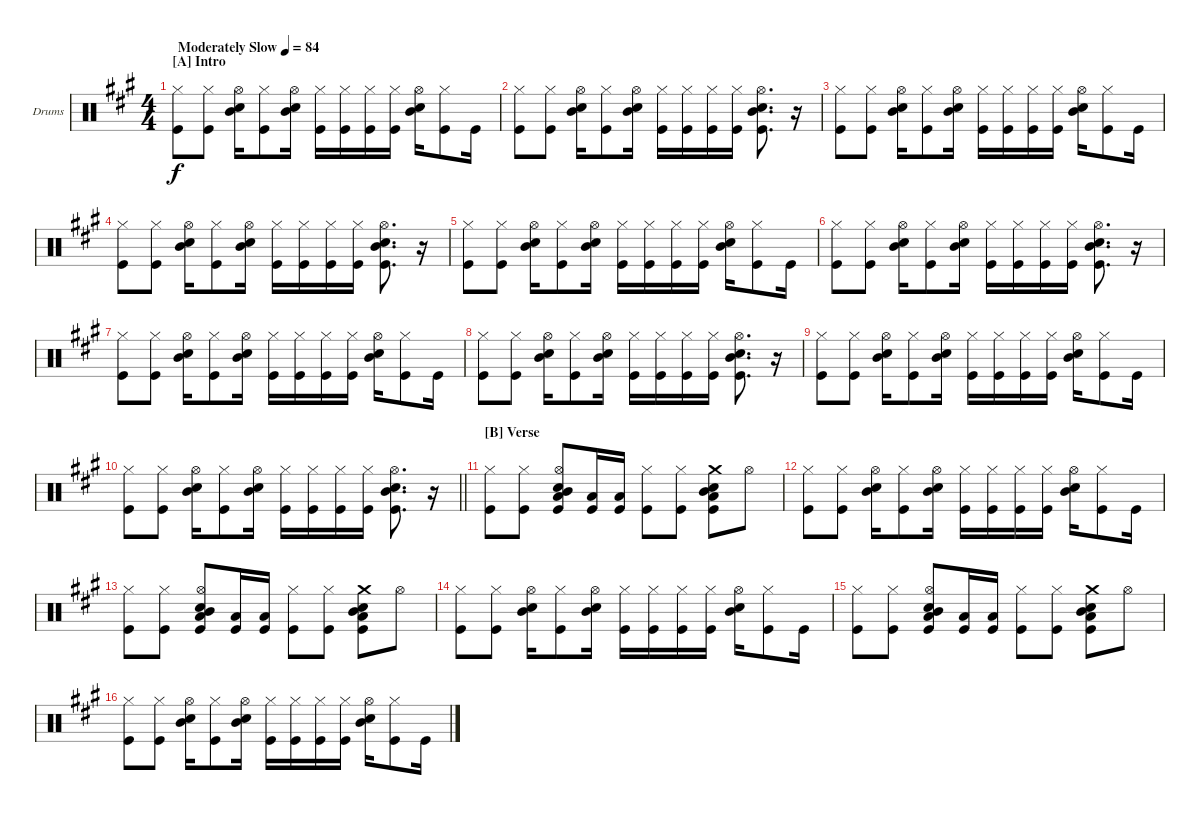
\defaultSystemsLayout 4
\bracketExtendMode groupsimilarinstruments
\firstSystemTrackNameOrientation horizontal
\otherSystemsTrackNameOrientation horizontal
\track ("Drumkit" "Drums") {instrument percussion}
\staff {score}
\articulation defaults
\ts (4 4)
\section ("A" "Intro")
\tempo (84 "Moderately Slow")
\clef neutral
\scale
1.08827
\ks a
("Kick (hit)" "Hi-Hat (closed)").8{dy f} ("Kick (hit)" "Hi-Hat (closed)").8 ("Snare (hit) 2" "Mid Tom (hit)" "Hi-Hat (open)").16 ("Kick (hit)" "Hi-Hat (closed)").8 ("Snare (hit) 2" "Mid Tom (hit)" "Hi-Hat (open)").16 ("Kick (hit)" "Hi-Hat (closed)").16 ("Kick (hit)" "Hi-Hat (closed)").16 ("Kick (hit)" "Hi-Hat (closed)").16 ("Kick (hit)" "Hi-Hat (closed)").16 ("Snare (hit) 2" "Mid Tom (hit)" "Hi-Hat (open)").16 ("Kick (hit)" "Hi-Hat (closed)").8 "Kick (hit)".16 |
\scale
0.911728 ("Kick (hit)" "Hi-Hat (closed)").8 ("Kick (hit)" "Hi-Hat (closed)").8 ("Snare (hit) 2" "Mid Tom (hit)" "Hi-Hat (open)").16 ("Kick (hit)" "Hi-Hat (closed)").8 ("Snare (hit) 2" "Mid Tom (hit)" "Hi-Hat (open)").16 ("Kick (hit)" "Hi-Hat (closed)").16 ("Kick (hit)" "Hi-Hat (closed)").16 ("Kick (hit)" "Hi-Hat (closed)").16 ("Kick (hit)" "Hi-Hat (closed)").16 ("Snare (hit) 2" "Mid Tom (hit)" "Hi-Hat (open)" "Kick (hit)").8{d} r.16 |
\scale
1.05801 ("Kick (hit)" "Hi-Hat (closed)").8 ("Kick (hit)" "Hi-Hat (closed)").8 ("Snare (hit) 2" "Mid Tom (hit)" "Hi-Hat (open)").16 ("Kick (hit)" "Hi-Hat (closed)").8 ("Snare (hit) 2" "Mid Tom (hit)" "Hi-Hat (open)").16 ("Kick (hit)" "Hi-Hat (closed)").16 ("Kick (hit)" "Hi-Hat (closed)").16 ("Kick (hit)" "Hi-Hat (closed)").16 ("Kick (hit)" "Hi-Hat (closed)").16 ("Snare (hit) 2" "Mid Tom (hit)" "Hi-Hat (open)").16 ("Kick (hit)" "Hi-Hat (closed)").8 "Kick (hit)".16 |
\scale
0.941992 ("Kick (hit)" "Hi-Hat (closed)").8 ("Kick (hit)" "Hi-Hat (closed)").8 ("Snare (hit) 2" "Mid Tom (hit)" "Hi-Hat (open)").16 ("Kick (hit)" "Hi-Hat (closed)").8 ("Snare (hit) 2" "Mid Tom (hit)" "Hi-Hat (open)").16 ("Kick (hit)" "Hi-Hat (closed)").16 ("Kick (hit)" "Hi-Hat (closed)").16 ("Kick (hit)" "Hi-Hat (closed)").16 ("Kick (hit)" "Hi-Hat (closed)").16 ("Snare (hit) 2" "Mid Tom (hit)" "Hi-Hat (open)" "Kick (hit)").8{d} r.16 |
\scale
1.05801 ("Kick (hit)" "Hi-Hat (closed)").8 ("Kick (hit)" "Hi-Hat (closed)").8 ("Snare (hit) 2" "Mid Tom (hit)" "Hi-Hat (open)").16 ("Kick (hit)" "Hi-Hat (closed)").8 ("Snare (hit) 2" "Mid Tom (hit)" "Hi-Hat (open)").16 ("Kick (hit)" "Hi-Hat (closed)").16 ("Kick (hit)" "Hi-Hat (closed)").16 ("Kick (hit)" "Hi-Hat (closed)").16 ("Kick (hit)" "Hi-Hat (closed)").16 ("Snare (hit) 2" "Mid Tom (hit)" "Hi-Hat (open)").16 ("Kick (hit)" "Hi-Hat (closed)").8 "Kick (hit)".16 |
\scale
0.941992 ("Kick (hit)" "Hi-Hat (closed)").8 ("Kick (hit)" "Hi-Hat (closed)").8 ("Snare (hit) 2" "Mid Tom (hit)" "Hi-Hat (open)").16 ("Kick (hit)" "Hi-Hat (closed)").8 ("Snare (hit) 2" "Mid Tom (hit)" "Hi-Hat (open)").16 ("Kick (hit)" "Hi-Hat (closed)").16 ("Kick (hit)" "Hi-Hat (closed)").16 ("Kick (hit)" "Hi-Hat (closed)").16 ("Kick (hit)" "Hi-Hat (closed)").16 ("Snare (hit) 2" "Mid Tom (hit)" "Hi-Hat (open)" "Kick (hit)").8{d} r.16 |
\scale
1.05801 ("Kick (hit)" "Hi-Hat (closed)").8 ("Kick (hit)" "Hi-Hat (closed)").8 ("Snare (hit) 2" "Mid Tom (hit)" "Hi-Hat (open)").16 ("Kick (hit)" "Hi-Hat (closed)").8 ("Snare (hit) 2" "Mid Tom (hit)" "Hi-Hat (open)").16 ("Kick (hit)" "Hi-Hat (closed)").16 ("Kick (hit)" "Hi-Hat (closed)").16 ("Kick (hit)" "Hi-Hat (closed)").16 ("Kick (hit)" "Hi-Hat (closed)").16 ("Snare (hit) 2" "Mid Tom (hit)" "Hi-Hat (open)").16 ("Kick (hit)" "Hi-Hat (closed)").8 "Kick (hit)".16 |
\scale
0.941992 ("Kick (hit)" "Hi-Hat (closed)").8 ("Kick (hit)" "Hi-Hat (closed)").8 ("Snare (hit) 2" "Mid Tom (hit)" "Hi-Hat (open)").16 ("Kick (hit)" "Hi-Hat (closed)").8 ("Snare (hit) 2" "Mid Tom (hit)" "Hi-Hat (open)").16 ("Kick (hit)" "Hi-Hat (closed)").16 ("Kick (hit)" "Hi-Hat (closed)").16 ("Kick (hit)" "Hi-Hat (closed)").16 ("Kick (hit)" "Hi-Hat (closed)").16 ("Snare (hit) 2" "Mid Tom (hit)" "Hi-Hat (open)" "Kick (hit)").8{d} r.16 |
\scale
1.05801 ("Kick (hit)" "Hi-Hat (closed)").8 ("Kick (hit)" "Hi-Hat (closed)").8 ("Snare (hit) 2" "Mid Tom (hit)" "Hi-Hat (open)").16 ("Kick (hit)" "Hi-Hat (closed)").8 ("Snare (hit) 2" "Mid Tom (hit)" "Hi-Hat (open)").16 ("Kick (hit)" "Hi-Hat (closed)").16 ("Kick (hit)" "Hi-Hat (closed)").16 ("Kick (hit)" "Hi-Hat (closed)").16 ("Kick (hit)" "Hi-Hat (closed)").16 ("Snare (hit) 2" "Mid Tom (hit)" "Hi-Hat (open)").16 ("Kick (hit)" "Hi-Hat (closed)").8 "Kick (hit)".16 |
\scale
0.941992
\barLineRight lightlight
("Kick (hit)" "Hi-Hat (closed)").8 ("Kick (hit)" "Hi-Hat (closed)").8 ("Snare (hit) 2" "Mid Tom (hit)" "Hi-Hat (open)").16 ("Kick (hit)" "Hi-Hat (closed)").8 ("Snare (hit) 2" "Mid Tom (hit)" "Hi-Hat (open)").16 ("Kick (hit)" "Hi-Hat (closed)").16 ("Kick (hit)" "Hi-Hat (closed)").16 ("Kick (hit)" "Hi-Hat (closed)").16 ("Kick (hit)" "Hi-Hat (closed)").16 ("Snare (hit) 2" "Mid Tom (hit)" "Hi-Hat (open)" "Kick (hit)").8{d} r.16 |
\section ("B" "Verse")
\scale
0.686869
\scale
1.05801 ("Hi-Hat (closed)" "Kick (hit)").8 ("Hi-Hat (closed)" "Kick (hit)").8 ("Snare (hit) 2" "Mid Tom (hit)" "Hi-Hat (open)" "Low Tom (hit)" "Kick (hit)").8 ("Low Tom (hit)" "Kick (hit)").16 ("Low Tom (hit)" "Kick (hit)").16 ("Hi-Hat (closed)" "Kick (hit)").8 ("Hi-Hat (closed)" "Kick (hit)").8 ("Snare (hit) 2" "Mid Tom (hit)" "Crash medium (hit)" "Low Tom (hit)" "Kick (hit)").8 "Hi-Hat (open)".8 |
\scale
0.941992 ("Kick (hit)" "Hi-Hat (closed)").8 ("Kick (hit)" "Hi-Hat (closed)").8 ("Snare (hit) 2" "Mid Tom (hit)" "Hi-Hat (open)").16 ("Kick (hit)" "Hi-Hat (closed)").8 ("Snare (hit) 2" "Mid Tom (hit)" "Hi-Hat (open)").16 ("Kick (hit)" "Hi-Hat (closed)").16 ("Kick (hit)" "Hi-Hat (closed)").16 ("Kick (hit)" "Hi-Hat (closed)").16 ("Kick (hit)" "Hi-Hat (closed)").16 ("Snare (hit) 2" "Mid Tom (hit)" "Hi-Hat (open)").16 ("Kick (hit)" "Hi-Hat (closed)").8 "Kick (hit)".16 |
\scale
1.05801 ("Hi-Hat (closed)" "Kick (hit)").8 ("Hi-Hat (closed)" "Kick (hit)").8 ("Snare (hit) 2" "Mid Tom (hit)" "Hi-Hat (open)" "Low Tom (hit)" "Kick (hit)").8 ("Low Tom (hit)" "Kick (hit)").16 ("Low Tom (hit)" "Kick (hit)").16 ("Hi-Hat (closed)" "Kick (hit)").8 ("Hi-Hat (closed)" "Kick (hit)").8 ("Snare (hit) 2" "Mid Tom (hit)" "Crash medium (hit)" "Low Tom (hit)" "Kick (hit)").8 "Hi-Hat (open)".8 |
\scale
0.941992 ("Kick (hit)" "Hi-Hat (closed)").8 ("Kick (hit)" "Hi-Hat (closed)").8 ("Snare (hit) 2" "Mid Tom (hit)" "Hi-Hat (open)").16 ("Kick (hit)" "Hi-Hat (closed)").8 ("Snare (hit) 2" "Mid Tom (hit)" "Hi-Hat (open)").16 ("Kick (hit)" "Hi-Hat (closed)").16 ("Kick (hit)" "Hi-Hat (closed)").16 ("Kick (hit)" "Hi-Hat (closed)").16 ("Kick (hit)" "Hi-Hat (closed)").16 ("Snare (hit) 2" "Mid Tom (hit)" "Hi-Hat (open)").16 ("Kick (hit)" "Hi-Hat (closed)").8 "Kick (hit)".16 |
\scale
1.05801 ("Hi-Hat (closed)" "Kick (hit)").8 ("Hi-Hat (closed)" "Kick (hit)").8 ("Snare (hit) 2" "Mid Tom (hit)" "Hi-Hat (open)" "Low Tom (hit)" "Kick (hit)").8 ("Low Tom (hit)" "Kick (hit)").16 ("Low Tom (hit)" "Kick (hit)").16 ("Hi-Hat (closed)" "Kick (hit)").8 ("Hi-Hat (closed)" "Kick (hit)").8 ("Snare (hit) 2" "Mid Tom (hit)" "Crash medium (hit)" "Low Tom (hit)" "Kick (hit)").8 "Hi-Hat (open)".8 |
\scale
0.941992 ("Kick (hit)" "Hi-Hat (closed)").8 ("Kick (hit)" "Hi-Hat (closed)").8 ("Snare (hit) 2" "Mid Tom (hit)" "Hi-Hat (open)").16 ("Kick (hit)" "Hi-Hat (closed)").8 ("Snare (hit) 2" "Mid Tom (hit)" "Hi-Hat (open)").16 ("Kick (hit)" "Hi-Hat (closed)").16 ("Kick (hit)" "Hi-Hat (closed)").16 ("Kick (hit)" "Hi-Hat (closed)").16 ("Kick (hit)" "Hi-Hat (closed)").16 ("Snare (hit) 2" "Mid Tom (hit)" "Hi-Hat (open)").16 ("Kick (hit)" "Hi-Hat (closed)").8 "Kick (hit)".16
